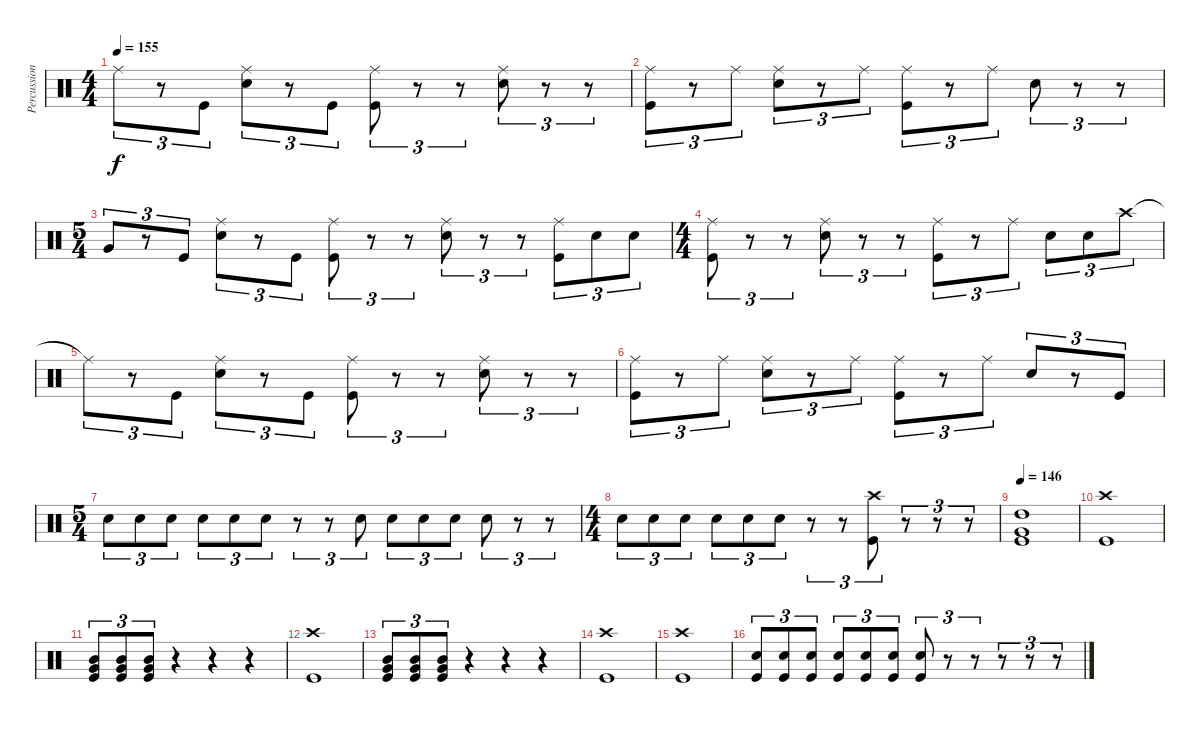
\track ("Percussion" "Percussion") {instrument percussion}
\staff {score}
\articulation defaults
\ts (4 4)
\tempo 155
\clef neutral
\ks c "Ride (middle)"{t}.8{tu (3 2) dy f}
r.8{tu (3 2)} "Kick (hit)".8{tu (3 2)} ("Ride (middle)" "Snare (hit) 2").8{tu (3 2)} r.8{tu (3 2)} "Kick (hit)".8{tu (3 2)} ("Ride (middle)" "Kick (hit)").8{tu (3 2)} r.8{tu (3 2)} r.8{tu (3 2)} ("Ride (middle)" "Snare (hit) 2").8{tu (3 2)} r.8{tu (3 2)} r.8{tu (3 2)} |
("Ride (middle)" "Kick (hit)").8{tu (3 2)} r.8{tu (3 2)} "Ride (middle)".8{tu (3 2)} ("Ride (middle)" "Snare (hit) 2").8{tu (3 2)} r.8{tu (3 2)} "Ride (middle)".8{tu (3 2)} ("Ride (middle)" "Kick (hit)").8{tu (3 2)} r.8{tu (3 2)} "Ride (middle)".8{tu (3 2)} "Snare (hit) 2".8{tu (3 2)} r.8{tu (3 2)} r.8{tu (3 2)} |
\ts (5 4)
"Very Low Tom (hit)".8{tu (3 2)} r.8{tu (3 2)} "Kick (hit)".8{tu (3 2)} ("Ride (middle)" "Snare (hit) 2").8{tu (3 2)} r.8{tu (3 2)} "Kick (hit)".8{tu (3 2)} ("Ride (middle)" "Kick (hit)").8{tu (3 2)} r.8{tu (3 2)} r.8{tu (3 2)} ("Ride (middle)" "Snare (hit) 2").8{tu (3 2)} r.8{tu (3 2)} r.8{tu (3 2)} ("Ride (middle)" "Kick (hit)").8{tu (3 2)} "Snare (hit) 2".8{tu (3 2)} "Snare (hit) 2".8{tu (3 2)} |
\ts (4 4)
("Ride (middle)" "Kick (hit)").8{tu (3 2)} r.8{tu (3 2)} r.8{tu (3 2)} ("Ride (middle)" "Snare (hit) 2").8{tu (3 2)} r.8{tu (3 2)} r.8{tu (3 2)} ("Ride (middle)" "Kick (hit)").8{tu (3 2)} r.8{tu (3 2)} "Ride (middle)".8{tu (3 2)} "Snare (hit) 2".8{tu (3 2)} "Snare (hit) 2".8{tu (3 2)} "Crash high (hit)".8{tu (3 2)} |
"Ride (middle)"{t}.8{tu (3 2)} r.8{tu (3 2)} "Kick (hit)".8{tu (3 2)} ("Ride (middle)" "Snare (hit) 2").8{tu (3 2)} r.8{tu (3 2)} "Kick (hit)".8{tu (3 2)} ("Ride (middle)" "Kick (hit)").8{tu (3 2)} r.8{tu (3 2)} r.8{tu (3 2)} ("Ride (middle)" "Snare (hit) 2").8{tu (3 2)} r.8{tu (3 2)} r.8{tu (3 2)} |
("Ride (middle)" "Kick (hit)").8{tu (3 2)} r.8{tu (3 2)} "Ride (middle)".8{tu (3 2)} ("Ride (middle)" "Snare (hit) 2").8{tu (3 2)} r.8{tu (3 2)} "Ride (middle)".8{tu (3 2)} ("Ride (middle)" "Kick (hit)").8{tu (3 2)} r.8{tu (3 2)} "Ride (middle)".8{tu (3 2)} "Snare (hit) 2".8{tu (3 2)} r.8{tu (3 2)} "Kick (hit)".8{tu (3 2)} |
\ts (5 4)
"Snare (hit) 2".8{tu (3 2)} "Snare (hit) 2".8{tu (3 2)} "Snare (hit) 2".8{tu (3 2)} "Snare (hit) 2".8{tu (3 2)} "Snare (hit) 2".8{tu (3 2)} "Snare (hit) 2".8{tu (3 2)} r.8{tu (3 2)} r.8{tu (3 2)} "Snare (hit) 2".8{tu (3 2)} "Snare (hit) 2".8{tu (3 2)} "Snare (hit) 2".8{tu (3 2)} "Snare (hit) 2".8{tu (3 2)} "Snare (hit) 2".8{tu (3 2)} r.8{tu (3 2)} r.8{tu (3 2)} |
\ts (4 4)
"Snare (hit) 2".8{tu (3 2)} "Snare (hit) 2".8{tu (3 2)} "Snare (hit) 2".8{tu (3 2)} "Snare (hit) 2".8{tu (3 2)} "Snare (hit) 2".8{tu (3 2)} "Snare (hit) 2".8{tu (3 2)} r.8{tu (3 2)} r.8{tu (3 2)} ("Crash high (hit)" "Kick (hit)").8{tu (3 2)} r.8{tu (3 2)} r.8{tu (3 2)} r.8{tu (3 2)} |
\tempo 146
("High Tom (hit)" "Very Low Tom (hit)" "Kick (hit)").1 |
("Crash high (hit)" "Kick (hit)").1 |
("Mid Tom (hit)" "Very Low Tom (hit)" "Kick (hit)").8{tu (3 2)} ("Mid Tom (hit)" "Very Low Tom (hit)" "Kick (hit)").8{tu (3 2)} ("Mid Tom (hit)" "Very Low Tom (hit)" "Kick (hit)").8{tu (3 2)} r.4 r.4 r.4 |
("Crash high (hit)" "Kick (hit)").1 |
("Mid Tom (hit)" "Very Low Tom (hit)" "Kick (hit)").8{tu (3 2)} ("Mid Tom (hit)" "Very Low Tom (hit)" "Kick (hit)").8{tu (3 2)} ("Mid Tom (hit)" "Very Low Tom (hit)" "Kick (hit)").8{tu (3 2)} r.4 r.4 r.4 |
("Crash high (hit)" "Kick (hit)").1 |
("Crash high (hit)" "Kick (hit)").1 |
("Snare (hit) 2" "Kick (hit)").8{tu (3 2)} ("Snare (hit) 2" "Kick (hit)").8{tu (3 2)} ("Snare (hit) 2" "Kick (hit)").8{tu (3 2)} ("Snare (hit) 2" "Kick (hit)").8{tu (3 2)} ("Snare (hit) 2" "Kick (hit)").8{tu (3 2)} ("Snare (hit) 2" "Kick (hit)").8{tu (3 2)} ("Snare (hit) 2" "Kick (hit)").8{tu (3 2)} r.8{tu (3 2)} r.8{tu (3 2)} r.8{tu (3 2)} r.8{tu (3 2)} r.8{tu (3 2)}
